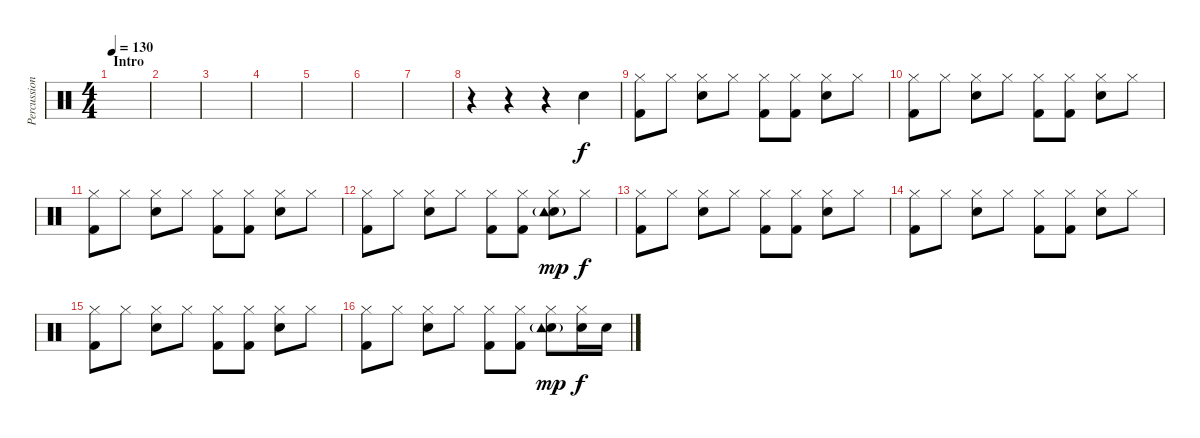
\track ("Percussion" "Percussion") {instrument percussion}
\staff {score}
\articulation defaults
\ts (4 4)
\section ("" "Intro")
\tempo 130
\clef neutral
\ks c
|
|
|
|
|
|
|
r.4 r.4 r.4 "Electric Snare (hit)".4 |
("Kick (hit) 2" "Hi-Hat (closed)").8 "Hi-Hat (closed)".8 ("Electric Snare (hit)" "Hi-Hat (closed)").8 "Hi-Hat (closed)".8 ("Kick (hit) 2" "Hi-Hat (closed)").8 ("Kick (hit) 2" "Hi-Hat (closed)").8 ("Electric Snare (hit)" "Hi-Hat (closed)").8 "Hi-Hat (closed)".8 |
("Kick (hit) 2" "Hi-Hat (closed)").8 "Hi-Hat (closed)".8 ("Electric Snare (hit)" "Hi-Hat (closed)").8 "Hi-Hat (closed)".8 ("Kick (hit) 2" "Hi-Hat (closed)").8 ("Kick (hit) 2" "Hi-Hat (closed)").8 ("Electric Snare (hit)" "Hi-Hat (closed)").8 "Hi-Hat (closed)".8 |
("Kick (hit) 2" "Hi-Hat (closed)").8 "Hi-Hat (closed)".8 ("Electric Snare (hit)" "Hi-Hat (closed)").8 "Hi-Hat (closed)".8 ("Kick (hit) 2" "Hi-Hat (closed)").8 ("Kick (hit) 2" "Hi-Hat (closed)").8 ("Electric Snare (hit)" "Hi-Hat (closed)").8 "Hi-Hat (closed)".8 |
("Kick (hit) 2" "Hi-Hat (closed)").8 "Hi-Hat (closed)".8 ("Electric Snare (hit)" "Hi-Hat (closed)").8 "Hi-Hat (closed)".8 ("Kick (hit) 2" "Hi-Hat (closed)").8 ("Kick (hit) 2" "Hi-Hat (closed)").8 ("Electric Snare (hit)" "Hi-Hat (closed)" "Tambourine (hit)"{g}).8{dy mp} "Hi-Hat (closed)".8{dy f} |
("Kick (hit) 2" "Hi-Hat (closed)").8 "Hi-Hat (closed)".8 ("Electric Snare (hit)" "Hi-Hat (closed)").8 "Hi-Hat (closed)".8 ("Kick (hit) 2" "Hi-Hat (closed)").8 ("Kick (hit) 2" "Hi-Hat (closed)").8 ("Electric Snare (hit)" "Hi-Hat (closed)").8 "Hi-Hat (closed)".8 |
("Kick (hit) 2" "Hi-Hat (closed)").8 "Hi-Hat (closed)".8 ("Electric Snare (hit)" "Hi-Hat (closed)").8 "Hi-Hat (closed)".8 ("Kick (hit) 2" "Hi-Hat (closed)").8 ("Kick (hit) 2" "Hi-Hat (closed)").8 ("Electric Snare (hit)" "Hi-Hat (closed)").8 "Hi-Hat (closed)".8 |
("Kick (hit) 2" "Hi-Hat (closed)").8 "Hi-Hat (closed)".8 ("Electric Snare (hit)" "Hi-Hat (closed)").8 "Hi-Hat (closed)".8 ("Kick (hit) 2" "Hi-Hat (closed)").8 ("Kick (hit) 2" "Hi-Hat (closed)").8 ("Electric Snare (hit)" "Hi-Hat (closed)").8 "Hi-Hat (closed)".8 |
("Kick (hit) 2" "Hi-Hat (closed)").8 "Hi-Hat (closed)".8 ("Electric Snare (hit)" "Hi-Hat (closed)").8 "Hi-Hat (closed)".8 ("Kick (hit) 2" "Hi-Hat (closed)").8 ("Kick (hit) 2" "Hi-Hat (closed)").8 ("Electric Snare (hit)" "Hi-Hat (closed)" "Tambourine (hit)"{g}).8{dy mp} ("Electric Snare (hit)" "Hi-Hat (closed)").16{dy f} "Electric Snare (hit)".16
